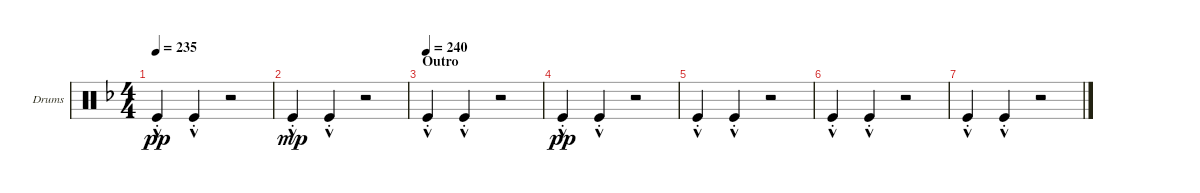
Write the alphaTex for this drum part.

\defaultSystemsLayout 4
\bracketExtendMode groupsimilarinstruments
\firstSystemTrackNameOrientation horizontal
\otherSystemsTrackNameOrientation horizontal
\track ("Drumkit" "Drums") {instrument percussion}
\staff {score}
\articulation defaults
\ts (4 4)
\tempo 235
\clef neutral
\ks dminor "Kick (hit)"{hac st}.4{dy pp} "Kick (hit)"{hac st}.4
r.2 |
"Kick (hit)"{hac st}.4{dy mp} "Kick (hit)"{hac st}.4 r.2 |
\section ("" "Outro")
\tempo (240)
"Kick (hit)"{hac st}.4 "Kick (hit)"{hac st}.4 r.2 |
"Kick (hit)"{hac st}.4{dy pp} "Kick (hit)"{hac st}.4 r.2 |
"Kick (hit)"{hac st}.4 "Kick (hit)"{hac st}.4 r.2 |
"Kick (hit)"{hac st}.4 "Kick (hit)"{hac st}.4 r.2 |
"Kick (hit)"{hac st}.4 "Kick (hit)"{hac st}.4 r.2
